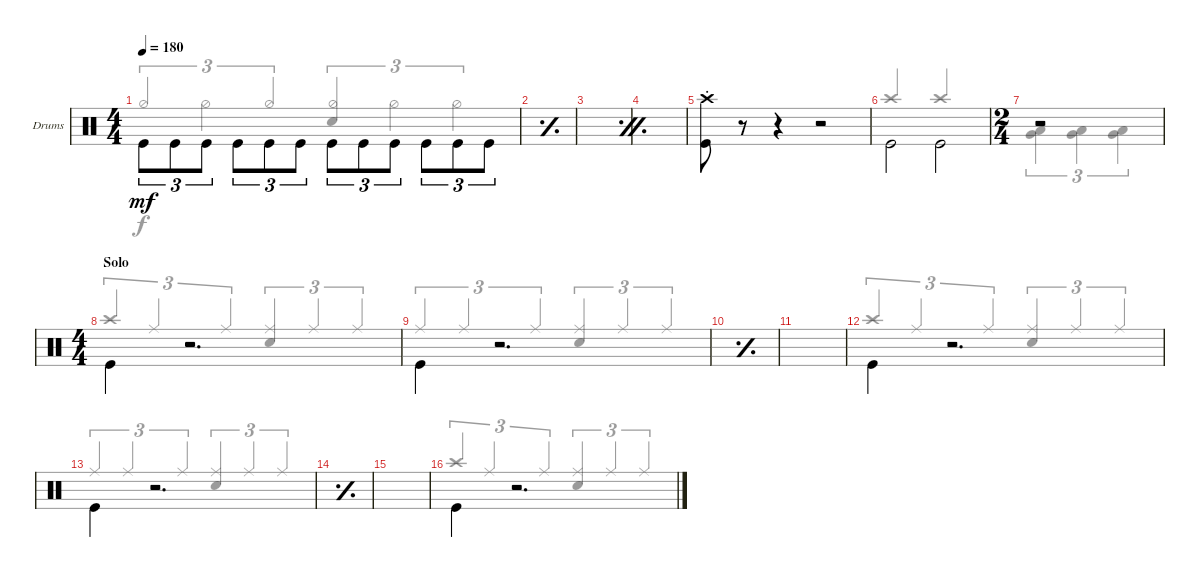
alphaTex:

\defaultSystemsLayout 4
\bracketExtendMode groupsimilarinstruments
\multiBarRest
\firstSystemTrackNameOrientation horizontal
\otherSystemsTrackNameOrientation horizontal
\track ("Drumkit" "Drums") {instrument percussion}
\staff {score}
\articulation defaults
\voice
\ts (4 4)
\tempo 180
\clef neutral
\ks c "Kick (hit)".8{tu (3 2) dy mf beam invert} "Kick (hit)".8{tu (3 2) beam invert} "Kick (hit)".8{tu (3 2) beam invert} "Kick (hit)".8{tu (3 2) beam invert} "Kick (hit)".8{tu (3 2) beam invert} "Kick (hit)".8{tu (3 2) beam invert} "Kick (hit)".8{tu (3 2) beam invert} "Kick (hit)".8{tu (3 2) beam invert} "Kick (hit)".8{tu (3 2) beam invert} "Kick (hit)".8{tu (3 2) beam invert} "Kick (hit)".8{tu (3 2) beam invert} "Kick (hit)".8{tu (3 2) beam invert}
|
\simile simple
|
\simile firstofdouble
|
\simile secondofdouble
|
("Kick (hit)" "Crash high (hit)"{st}).8 r.8 r.4 r.2 |
"Kick (hit)".2{beam invert} "Kick (hit)".2{beam invert} |
\ts (2 4)
r.2 |
\ts (4 4)
\section ("" "Solo")
"Kick (hit)".4{beam invert} r.2{d} |
"Kick (hit)".4{beam invert} r.2{d} |
\simile simple
|
|
\simile none "Kick (hit)".4{beam invert}
r.2{d} |
"Kick (hit)".4{beam invert} r.2{d} |
\simile simple
|
|
\simile none "Kick (hit)".4{beam invert}
r.2{d}
\voice
\clef neutral
\ottava regular
\simile none
\ks c "Hi-Hat (half)".4{tu (3 2) dy f beam invert} "Hi-Hat (half)".4{tu (3 2)} "Hi-Hat (half)".4{tu (3 2)}
("Hi-Hat (half)" "Snare (hit) 2").4{tu (3 2) beam invert} "Hi-Hat (half)".4{tu (3 2)} "Hi-Hat (half)".4{tu (3 2)} |
\simile simple
|
\simile firstofdouble
|
\simile secondofdouble
|
\simile none
|
"Crash high (hit)".2{beam invert} "Crash high (hit)".2{beam invert} |
("Very Low Tom (hit)" "Low Tom (hit)").4{tu (3 2)} ("Very Low Tom (hit)" "Low Tom (hit)").4{tu (3 2)} ("Very Low Tom (hit)" "Low Tom (hit)").4{tu (3 2)} |
"Crash high (hit)".4{tu (3 2) beam invert} "Ride (middle)".4{tu (3 2) beam invert} "Ride (middle)".4{tu (3 2) beam invert} ("Ride (middle)" "Snare (hit) 2").4{tu (3 2) beam invert} "Ride (middle)".4{tu (3 2) beam invert} "Ride (middle)".4{tu (3 2) beam invert} |
"Ride (middle)".4{tu (3 2) beam invert} "Ride (middle)".4{tu (3 2) beam invert} "Ride (middle)".4{tu (3 2) beam invert} ("Ride (middle)" "Snare (hit) 2").4{tu (3 2) beam invert} "Ride (middle)".4{tu (3 2) beam invert} "Ride (middle)".4{tu (3 2) beam invert} |
\simile simple
|
|
\simile none "Crash high (hit)".4{tu (3 2) beam invert} "Ride (middle)".4{tu (3 2) beam invert} "Ride (middle)".4{tu (3 2) beam invert}
("Ride (middle)" "Snare (hit) 2").4{tu (3 2) beam invert} "Ride (middle)".4{tu (3 2) beam invert} "Ride (middle)".4{tu (3 2) beam invert} |
"Ride (middle)".4{tu (3 2) beam invert} "Ride (middle)".4{tu (3 2) beam invert} "Ride (middle)".4{tu (3 2) beam invert} ("Ride (middle)" "Snare (hit) 2").4{tu (3 2) beam invert} "Ride (middle)".4{tu (3 2) beam invert} "Ride (middle)".4{tu (3 2) beam invert} |
\simile simple
|
|
\simile none "Crash high (hit)".4{tu (3 2) beam invert} "Ride (middle)".4{tu (3 2) beam invert} "Ride (middle)".4{tu (3 2) beam invert}
("Ride (middle)" "Snare (hit) 2").4{tu (3 2) beam invert} "Ride (middle)".4{tu (3 2) beam invert} "Ride (middle)".4{tu (3 2) beam invert}
